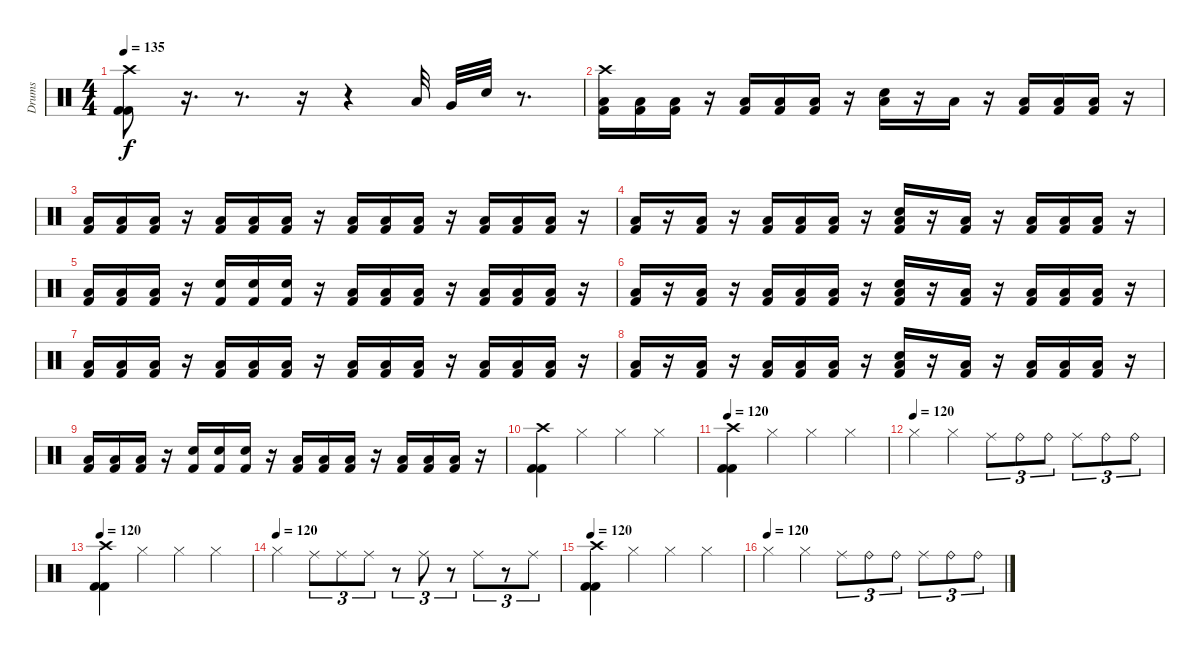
\track ("Drums" "Drums") {instrument percussion}
\staff {score}
\articulation defaults
\ts (4 4)
\tempo 135
\clef neutral
\ks c
("Crash high (hit)" "Kick (hit) 2" "Kick (hit) 2").8{dy f} r.16{d} r.8{d} r.16 r.4 "Low Floor Tom (hit)".32 "Very Low Tom (hit)".32 "Electric Snare (hit)".32 r.8{d} |
("Crash high (hit)" "Low Floor Tom (hit)" "Kick (hit) 2").16 ("Low Floor Tom (hit)" "Kick (hit) 2").16 ("Low Floor Tom (hit)" "Kick (hit) 2").16 r.16 ("Low Floor Tom (hit)" "Kick (hit) 2").16 ("Low Floor Tom (hit)" "Kick (hit) 2").16 ("Low Floor Tom (hit)" "Kick (hit) 2").16 r.16 ("Electric Snare (hit)" "Low Floor Tom (hit)").16 r.16 "Low Floor Tom (hit)".16 r.16 ("Low Floor Tom (hit)" "Kick (hit) 2").16 ("Low Floor Tom (hit)" "Kick (hit) 2").16 ("Low Floor Tom (hit)" "Kick (hit) 2").16 r.16 |
("Low Floor Tom (hit)" "Kick (hit) 2").16 ("Low Floor Tom (hit)" "Kick (hit) 2").16 ("Low Floor Tom (hit)" "Kick (hit) 2").16 r.16 ("Low Floor Tom (hit)" "Kick (hit) 2").16 ("Low Floor Tom (hit)" "Kick (hit) 2").16 ("Low Floor Tom (hit)" "Kick (hit) 2").16 r.16 ("Low Floor Tom (hit)" "Kick (hit) 2").16 ("Low Floor Tom (hit)" "Kick (hit) 2").16 ("Low Floor Tom (hit)" "Kick (hit) 2").16 r.16 ("Low Floor Tom (hit)" "Kick (hit) 2").16 ("Low Floor Tom (hit)" "Kick (hit) 2").16 ("Low Floor Tom (hit)" "Kick (hit) 2").16 r.16 |
("Low Floor Tom (hit)" "Kick (hit) 2").16 r.16 ("Low Floor Tom (hit)" "Kick (hit) 2").16 r.16 ("Low Floor Tom (hit)" "Kick (hit) 2").16 ("Low Floor Tom (hit)" "Kick (hit) 2").16 ("Low Floor Tom (hit)" "Kick (hit) 2").16 r.16 ("Electric Snare (hit)" "Low Floor Tom (hit)" "Kick (hit) 2").16 r.16 ("Low Floor Tom (hit)" "Kick (hit) 2").16 r.16 ("Low Floor Tom (hit)" "Kick (hit) 2").16 ("Low Floor Tom (hit)" "Kick (hit) 2").16 ("Low Floor Tom (hit)" "Kick (hit) 2").16 r.16 |
("Low Floor Tom (hit)" "Kick (hit) 2").16 ("Low Floor Tom (hit)" "Kick (hit) 2").16 ("Low Floor Tom (hit)" "Kick (hit) 2").16 r.16 ("Electric Snare (hit)" "Kick (hit) 2").16 ("Electric Snare (hit)" "Kick (hit) 2").16 ("Electric Snare (hit)" "Kick (hit) 2").16 r.16 ("Low Floor Tom (hit)" "Kick (hit) 2").16 ("Low Floor Tom (hit)" "Kick (hit) 2").16 ("Low Floor Tom (hit)" "Kick (hit) 2").16 r.16 ("Low Floor Tom (hit)" "Kick (hit) 2").16 ("Low Floor Tom (hit)" "Kick (hit) 2").16 ("Low Floor Tom (hit)" "Kick (hit) 2").16 r.16 |
("Low Floor Tom (hit)" "Kick (hit) 2").16 r.16 ("Low Floor Tom (hit)" "Kick (hit) 2").16 r.16 ("Low Floor Tom (hit)" "Kick (hit) 2").16 ("Low Floor Tom (hit)" "Kick (hit) 2").16 ("Low Floor Tom (hit)" "Kick (hit) 2").16 r.16 ("Electric Snare (hit)" "Low Floor Tom (hit)" "Kick (hit) 2").16 r.16 ("Low Floor Tom (hit)" "Kick (hit) 2").16 r.16 ("Low Floor Tom (hit)" "Kick (hit) 2").16 ("Low Floor Tom (hit)" "Kick (hit) 2").16 ("Low Floor Tom (hit)" "Kick (hit) 2").16 r.16 |
("Low Floor Tom (hit)" "Kick (hit) 2").16 ("Low Floor Tom (hit)" "Kick (hit) 2").16 ("Low Floor Tom (hit)" "Kick (hit) 2").16 r.16 ("Low Floor Tom (hit)" "Kick (hit) 2").16 ("Low Floor Tom (hit)" "Kick (hit) 2").16 ("Low Floor Tom (hit)" "Kick (hit) 2").16 r.16 ("Low Floor Tom (hit)" "Kick (hit) 2").16 ("Low Floor Tom (hit)" "Kick (hit) 2").16 ("Low Floor Tom (hit)" "Kick (hit) 2").16 r.16 ("Low Floor Tom (hit)" "Kick (hit) 2").16 ("Low Floor Tom (hit)" "Kick (hit) 2").16 ("Low Floor Tom (hit)" "Kick (hit) 2").16 r.16 |
("Low Floor Tom (hit)" "Kick (hit) 2").16 r.16 ("Low Floor Tom (hit)" "Kick (hit) 2").16 r.16 ("Low Floor Tom (hit)" "Kick (hit) 2").16 ("Low Floor Tom (hit)" "Kick (hit) 2").16 ("Low Floor Tom (hit)" "Kick (hit) 2").16 r.16 ("Electric Snare (hit)" "Low Floor Tom (hit)" "Kick (hit) 2").16 r.16 ("Low Floor Tom (hit)" "Kick (hit) 2").16 r.16 ("Low Floor Tom (hit)" "Kick (hit) 2").16 ("Low Floor Tom (hit)" "Kick (hit) 2").16 ("Low Floor Tom (hit)" "Kick (hit) 2").16 r.16 |
("Low Floor Tom (hit)" "Kick (hit) 2").16 ("Low Floor Tom (hit)" "Kick (hit) 2").16 ("Low Floor Tom (hit)" "Kick (hit) 2").16 r.16 ("Electric Snare (hit)" "Kick (hit) 2").16 ("Electric Snare (hit)" "Kick (hit) 2").16 ("Electric Snare (hit)" "Kick (hit) 2").16 r.16 ("Low Floor Tom (hit)" "Kick (hit) 2").16 ("Low Floor Tom (hit)" "Kick (hit) 2").16 ("Low Floor Tom (hit)" "Kick (hit) 2").16 r.16 ("Low Floor Tom (hit)" "Kick (hit) 2").16 ("Low Floor Tom (hit)" "Kick (hit) 2").16 ("Low Floor Tom (hit)" "Kick (hit) 2").16 r.16 |
("Crash high (hit)" "Kick (hit) 2" "Kick (hit) 2").4 "Hi-Hat (closed)".4 "Hi-Hat (closed)".4 "Hi-Hat (closed)".4 |
\tempo 120
("Crash high (hit)" "Kick (hit) 2" "Kick (hit) 2").4 "Hi-Hat (closed)".4{volume 10} "Hi-Hat (closed)".4 "Hi-Hat (closed)".4 |
\tempo (120)
"Hi-Hat (closed)".4 "Hi-Hat (closed)".4 "Ride (middle)".8{tu (3 2)} "Ride (bell)".8{tu (3 2)} "Ride (bell)".8{tu (3 2)} "Ride (middle)".8{tu (3 2)} "Ride (bell)".8{tu (3 2)} "Ride (bell)".8{tu (3 2)} |
\tempo 120
("Crash high (hit)" "Kick (hit) 2" "Kick (hit) 2").4{volume 16} "Hi-Hat (closed)".4{volume 10} "Hi-Hat (closed)".4 "Hi-Hat (closed)".4 |
\tempo (120)
"Hi-Hat (closed)".4 "Ride (middle)".8{tu (3 2)} "Ride (middle)".8{tu (3 2)} "Ride (middle)".8{tu (3 2)} r.8{tu (3 2)} "Ride (middle)".8{tu (3 2)} r.8{tu (3 2)} "Ride (middle)".8{tu (3 2)} r.8{tu (3 2)} "Ride (middle)".8{tu (3 2)} |
\tempo 120
("Crash high (hit)" "Kick (hit) 2" "Kick (hit) 2").4{volume 16} "Hi-Hat (closed)".4{volume 10} "Hi-Hat (closed)".4 "Hi-Hat (closed)".4 |
\tempo (120)
"Hi-Hat (closed)".4 "Hi-Hat (closed)".4 "Ride (middle)".8{tu (3 2)} "Ride (bell)".8{tu (3 2)} "Ride (bell)".8{tu (3 2)} "Ride (middle)".8{tu (3 2)} "Ride (bell)".8{tu (3 2)} "Ride (bell)".8{tu (3 2)}
